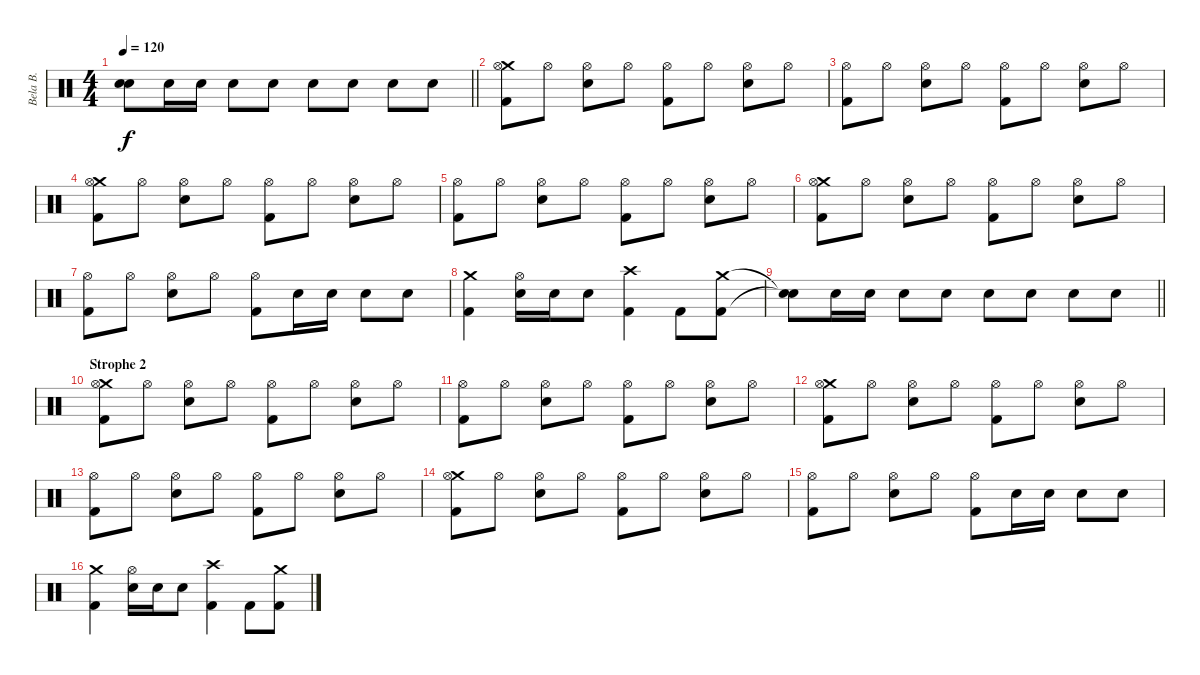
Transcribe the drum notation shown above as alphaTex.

\track ("Bela B." "Bela B.") {instrument percussion}
\staff {score}
\articulation defaults
\ts (4 4)
\tempo 120
\clef neutral
\barLineRight lightlight
\ks c
("Snare (hit)"{t} "Snare (hit)"{t}).8{dy f} "Snare (hit) 2".16 "Snare (hit) 2".16 "Snare (hit) 2".8 "Snare (hit) 2".8 "Snare (hit) 2".8 "Snare (hit) 2".8 "Snare (hit) 2".8 "Snare (hit) 2".8 |
("Crash medium (hit)" "Hi-Hat (open)" "Kick (hit) 2").8 "Hi-Hat (open)".8 ("Hi-Hat (open)" "Snare (hit) 2").8 "Hi-Hat (open)".8 ("Hi-Hat (open)" "Kick (hit) 2").8 "Hi-Hat (open)".8 ("Hi-Hat (open)" "Snare (hit) 2").8 "Hi-Hat (open)".8 |
("Hi-Hat (open)" "Kick (hit) 2").8 "Hi-Hat (open)".8 ("Hi-Hat (open)" "Snare (hit) 2").8 "Hi-Hat (open)".8 ("Hi-Hat (open)" "Kick (hit) 2").8 "Hi-Hat (open)".8 ("Hi-Hat (open)" "Snare (hit) 2").8 "Hi-Hat (open)".8 |
("Crash medium (hit)" "Hi-Hat (open)" "Kick (hit) 2").8 "Hi-Hat (open)".8 ("Hi-Hat (open)" "Snare (hit) 2").8 "Hi-Hat (open)".8 ("Hi-Hat (open)" "Kick (hit) 2").8 "Hi-Hat (open)".8 ("Hi-Hat (open)" "Snare (hit) 2").8 "Hi-Hat (open)".8 |
("Hi-Hat (open)" "Kick (hit) 2").8 "Hi-Hat (open)".8 ("Hi-Hat (open)" "Snare (hit) 2").8 "Hi-Hat (open)".8 ("Hi-Hat (open)" "Kick (hit) 2").8 "Hi-Hat (open)".8 ("Hi-Hat (open)" "Snare (hit) 2").8 "Hi-Hat (open)".8 |
("Crash medium (hit)" "Hi-Hat (open)" "Kick (hit) 2").8 "Hi-Hat (open)".8 ("Hi-Hat (open)" "Snare (hit) 2").8 "Hi-Hat (open)".8 ("Hi-Hat (open)" "Kick (hit) 2").8 "Hi-Hat (open)".8 ("Hi-Hat (open)" "Snare (hit) 2").8 "Hi-Hat (open)".8 |
("Hi-Hat (open)" "Kick (hit) 2").8 "Hi-Hat (open)".8 ("Hi-Hat (open)" "Snare (hit) 2").8 "Hi-Hat (open)".8 ("Hi-Hat (open)" "Kick (hit) 2").8 "Snare (hit) 2".16 "Snare (hit) 2".16 "Snare (hit) 2".8 "Snare (hit) 2".8 |
("Crash medium (hit)" "Kick (hit) 2").4 ("Hi-Hat (open)" "Snare (hit) 2").16 "Snare (hit) 2".16 "Snare (hit) 2".8 ("Crash high (hit)" "Kick (hit) 2").4 "Kick (hit) 2".8 ("Crash medium (hit)" "Kick (hit) 2").8 |
\barLineRight lightlight
("Snare (hit)"{t} "Snare (hit)"{t}).8 "Snare (hit) 2".16 "Snare (hit) 2".16 "Snare (hit) 2".8 "Snare (hit) 2".8 "Snare (hit) 2".8 "Snare (hit) 2".8 "Snare (hit) 2".8 "Snare (hit) 2".8 |
\section ("" "Strophe 2")
("Crash medium (hit)" "Hi-Hat (open)" "Kick (hit) 2").8 "Hi-Hat (open)".8 ("Hi-Hat (open)" "Snare (hit) 2").8 "Hi-Hat (open)".8 ("Hi-Hat (open)" "Kick (hit) 2").8 "Hi-Hat (open)".8 ("Hi-Hat (open)" "Snare (hit) 2").8 "Hi-Hat (open)".8 |
("Hi-Hat (open)" "Kick (hit) 2").8 "Hi-Hat (open)".8 ("Hi-Hat (open)" "Snare (hit) 2").8 "Hi-Hat (open)".8 ("Hi-Hat (open)" "Kick (hit) 2").8 "Hi-Hat (open)".8 ("Hi-Hat (open)" "Snare (hit) 2").8 "Hi-Hat (open)".8 |
("Crash medium (hit)" "Hi-Hat (open)" "Kick (hit) 2").8 "Hi-Hat (open)".8 ("Hi-Hat (open)" "Snare (hit) 2").8 "Hi-Hat (open)".8 ("Hi-Hat (open)" "Kick (hit) 2").8 "Hi-Hat (open)".8 ("Hi-Hat (open)" "Snare (hit) 2").8 "Hi-Hat (open)".8 |
("Hi-Hat (open)" "Kick (hit) 2").8 "Hi-Hat (open)".8 ("Hi-Hat (open)" "Snare (hit) 2").8 "Hi-Hat (open)".8 ("Hi-Hat (open)" "Kick (hit) 2").8 "Hi-Hat (open)".8 ("Hi-Hat (open)" "Snare (hit) 2").8 "Hi-Hat (open)".8 |
("Crash medium (hit)" "Hi-Hat (open)" "Kick (hit) 2").8 "Hi-Hat (open)".8 ("Hi-Hat (open)" "Snare (hit) 2").8 "Hi-Hat (open)".8 ("Hi-Hat (open)" "Kick (hit) 2").8 "Hi-Hat (open)".8 ("Hi-Hat (open)" "Snare (hit) 2").8 "Hi-Hat (open)".8 |
("Hi-Hat (open)" "Kick (hit) 2").8 "Hi-Hat (open)".8 ("Hi-Hat (open)" "Snare (hit) 2").8 "Hi-Hat (open)".8 ("Hi-Hat (open)" "Kick (hit) 2").8 "Snare (hit) 2".16 "Snare (hit) 2".16 "Snare (hit) 2".8 "Snare (hit) 2".8 |
("Crash medium (hit)" "Kick (hit) 2").4 ("Hi-Hat (open)" "Snare (hit) 2").16 "Snare (hit) 2".16 "Snare (hit) 2".8 ("Crash high (hit)" "Kick (hit) 2").4 "Kick (hit) 2".8 ("Crash medium (hit)" "Kick (hit) 2").8
